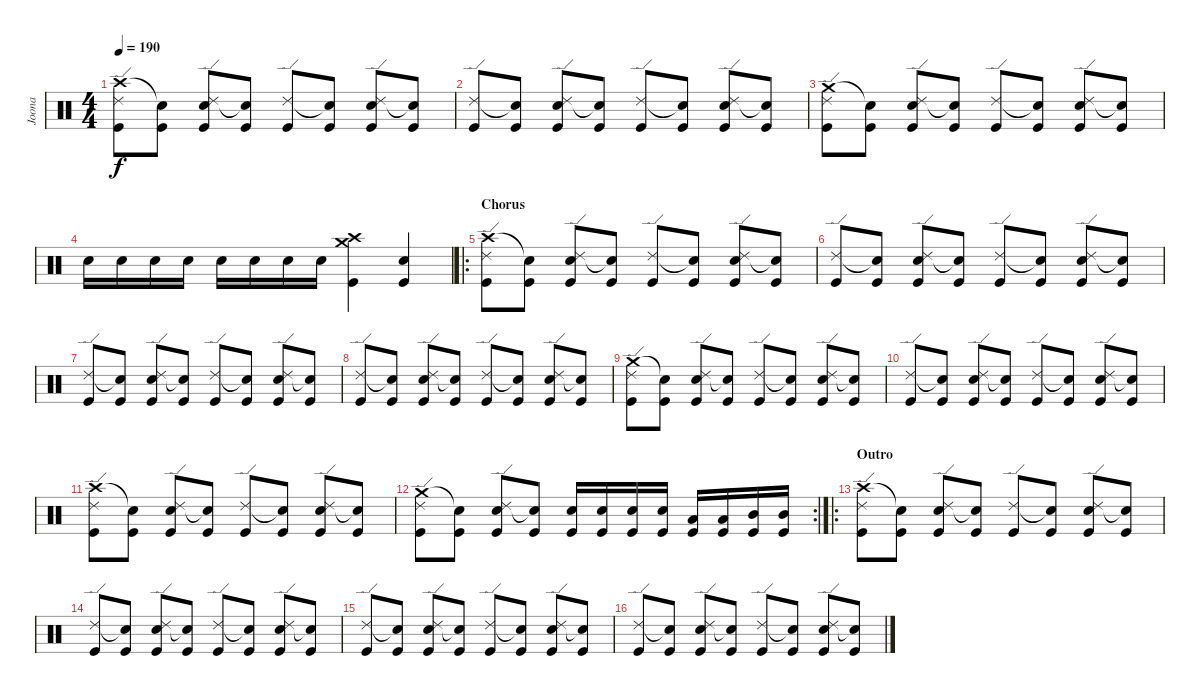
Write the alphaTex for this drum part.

\track ("Joona" "Joona") {instrument percussion}
\staff {score}
\articulation defaults
\ts (4 4)
\tempo 190
\clef neutral
\ks c
("Crash high (hit)" "Ride (edge) 2" "Kick (hit)").8{dy f} ("Snare (hit)"{t} "Kick (hit)").8 ("Ride (edge) 2" "Snare (hit) 2" "Kick (hit)").8 ("Snare (hit)"{t} "Kick (hit)").8 ("Ride (edge) 2" "Kick (hit)").8 ("Snare (hit)"{t} "Kick (hit)").8 ("Ride (edge) 2" "Snare (hit) 2" "Kick (hit)").8 ("Snare (hit)"{t} "Kick (hit)").8 |
("Ride (edge) 2" "Kick (hit)").8 ("Snare (hit)"{t} "Kick (hit)").8 ("Ride (edge) 2" "Snare (hit) 2" "Kick (hit)").8 ("Snare (hit)"{t} "Kick (hit)").8 ("Ride (edge) 2" "Kick (hit)").8 ("Snare (hit)"{t} "Kick (hit)").8 ("Ride (edge) 2" "Snare (hit) 2" "Kick (hit)").8 ("Snare (hit)"{t} "Kick (hit)").8 |
("Crash medium (hit)" "Ride (edge) 2" "Kick (hit)").8 ("Snare (hit)"{t} "Kick (hit)").8 ("Ride (edge) 2" "Snare (hit) 2" "Kick (hit)").8 ("Snare (hit)"{t} "Kick (hit)").8 ("Ride (edge) 2" "Kick (hit)").8 ("Snare (hit)"{t} "Kick (hit)").8 ("Ride (edge) 2" "Snare (hit) 2" "Kick (hit)").8 ("Snare (hit)"{t} "Kick (hit)").8 |
"Snare (hit) 2".16 "Snare (hit) 2".16 "Snare (hit) 2".16 "Snare (hit) 2".16 "Snare (hit) 2".16 "Snare (hit) 2".16 "Snare (hit) 2".16 "Snare (hit) 2".16 ("Crash high (hit)" "Crash medium (hit)" "Kick (hit)").4 ("Snare (hit) 2" "Kick (hit)").4 |
\ro
\section ("" "Chorus")
("Crash high (hit)" "Ride (edge) 2" "Kick (hit)").8 ("Snare (hit)"{t} "Kick (hit)").8 ("Ride (edge) 2" "Snare (hit) 2" "Kick (hit)").8 ("Snare (hit)"{t} "Kick (hit)").8 ("Ride (edge) 2" "Kick (hit)").8 ("Snare (hit)"{t} "Kick (hit)").8 ("Ride (edge) 2" "Snare (hit) 2" "Kick (hit)").8 ("Snare (hit)"{t} "Kick (hit)").8 |
("Ride (edge) 2" "Kick (hit)").8 ("Snare (hit)"{t} "Kick (hit)").8 ("Ride (edge) 2" "Snare (hit) 2" "Kick (hit)").8 ("Snare (hit)"{t} "Kick (hit)").8 ("Ride (edge) 2" "Kick (hit)").8 ("Snare (hit)"{t} "Kick (hit)").8 ("Ride (edge) 2" "Snare (hit) 2" "Kick (hit)").8 ("Snare (hit)"{t} "Kick (hit)").8 |
("Ride (edge) 2" "Kick (hit)").8 ("Snare (hit)"{t} "Kick (hit)").8 ("Ride (edge) 2" "Snare (hit) 2" "Kick (hit)").8 ("Snare (hit)"{t} "Kick (hit)").8 ("Ride (edge) 2" "Kick (hit)").8 ("Snare (hit)"{t} "Kick (hit)").8 ("Ride (edge) 2" "Snare (hit) 2" "Kick (hit)").8 ("Snare (hit)"{t} "Kick (hit)").8 |
("Ride (edge) 2" "Kick (hit)").8 ("Snare (hit)"{t} "Kick (hit)").8 ("Ride (edge) 2" "Snare (hit) 2" "Kick (hit)").8 ("Snare (hit)"{t} "Kick (hit)").8 ("Ride (edge) 2" "Kick (hit)").8 ("Snare (hit)"{t} "Kick (hit)").8 ("Ride (edge) 2" "Snare (hit) 2" "Kick (hit)").8 ("Snare (hit)"{t} "Kick (hit)").8 |
("Crash medium (hit)" "Ride (edge) 2" "Kick (hit)").8 ("Snare (hit)"{t} "Kick (hit)").8 ("Ride (edge) 2" "Snare (hit) 2" "Kick (hit)").8 ("Snare (hit)"{t} "Kick (hit)").8 ("Ride (edge) 2" "Kick (hit)").8 ("Snare (hit)"{t} "Kick (hit)").8 ("Ride (edge) 2" "Snare (hit) 2" "Kick (hit)").8 ("Snare (hit)"{t} "Kick (hit)").8 |
("Ride (edge) 2" "Kick (hit)").8 ("Snare (hit)"{t} "Kick (hit)").8 ("Ride (edge) 2" "Snare (hit) 2" "Kick (hit)").8 ("Snare (hit)"{t} "Kick (hit)").8 ("Ride (edge) 2" "Kick (hit)").8 ("Snare (hit)"{t} "Kick (hit)").8 ("Ride (edge) 2" "Snare (hit) 2" "Kick (hit)").8 ("Snare (hit)"{t} "Kick (hit)").8 |
("Crash high (hit)" "Ride (edge) 2" "Kick (hit)").8 ("Snare (hit)"{t} "Kick (hit)").8 ("Ride (edge) 2" "Snare (hit) 2" "Kick (hit)").8 ("Snare (hit)"{t} "Kick (hit)").8 ("Ride (edge) 2" "Kick (hit)").8 ("Snare (hit)"{t} "Kick (hit)").8 ("Ride (edge) 2" "Snare (hit) 2" "Kick (hit)").8 ("Snare (hit)"{t} "Kick (hit)").8 |
\rc 2
("Crash medium (hit)" "Ride (edge) 2" "Kick (hit)").8 ("Snare (hit)"{t} "Kick (hit)").8 ("Ride (edge) 2" "Snare (hit) 2" "Kick (hit)").8 ("Snare (hit)"{t} "Kick (hit)").8 ("Snare (hit) 2" "Kick (hit)").16 ("Snare (hit) 2" "Kick (hit)").16 ("Snare (hit) 2" "Kick (hit)").16 ("Snare (hit) 2" "Kick (hit)").16 ("Low Tom (hit)" "Kick (hit)").16 ("Low Tom (hit)" "Kick (hit)").16 ("Mid Tom (hit)" "Kick (hit)").16 ("Mid Tom (hit)" "Kick (hit)").16 |
\ro
\section ("" "Outro")
("Crash high (hit)" "Ride (edge) 2" "Kick (hit)").8 ("Snare (hit)"{t} "Kick (hit)").8 ("Ride (edge) 2" "Snare (hit) 2" "Kick (hit)").8 ("Snare (hit)"{t} "Kick (hit)").8 ("Ride (edge) 2" "Kick (hit)").8 ("Snare (hit)"{t} "Kick (hit)").8 ("Ride (edge) 2" "Snare (hit) 2" "Kick (hit)").8 ("Snare (hit)"{t} "Kick (hit)").8 |
("Ride (edge) 2" "Kick (hit)").8 ("Snare (hit)"{t} "Kick (hit)").8 ("Ride (edge) 2" "Snare (hit) 2" "Kick (hit)").8 ("Snare (hit)"{t} "Kick (hit)").8 ("Ride (edge) 2" "Kick (hit)").8 ("Snare (hit)"{t} "Kick (hit)").8 ("Ride (edge) 2" "Snare (hit) 2" "Kick (hit)").8 ("Snare (hit)"{t} "Kick (hit)").8 |
("Ride (edge) 2" "Kick (hit)").8 ("Snare (hit)"{t} "Kick (hit)").8 ("Ride (edge) 2" "Snare (hit) 2" "Kick (hit)").8 ("Snare (hit)"{t} "Kick (hit)").8 ("Ride (edge) 2" "Kick (hit)").8 ("Snare (hit)"{t} "Kick (hit)").8 ("Ride (edge) 2" "Snare (hit) 2" "Kick (hit)").8 ("Snare (hit)"{t} "Kick (hit)").8 |
("Ride (edge) 2" "Kick (hit)").8 ("Snare (hit)"{t} "Kick (hit)").8 ("Ride (edge) 2" "Snare (hit) 2" "Kick (hit)").8 ("Snare (hit)"{t} "Kick (hit)").8 ("Ride (edge) 2" "Kick (hit)").8 ("Snare (hit)"{t} "Kick (hit)").8 ("Ride (edge) 2" "Snare (hit) 2" "Kick (hit)").8 ("Snare (hit)"{t} "Kick (hit)").8
